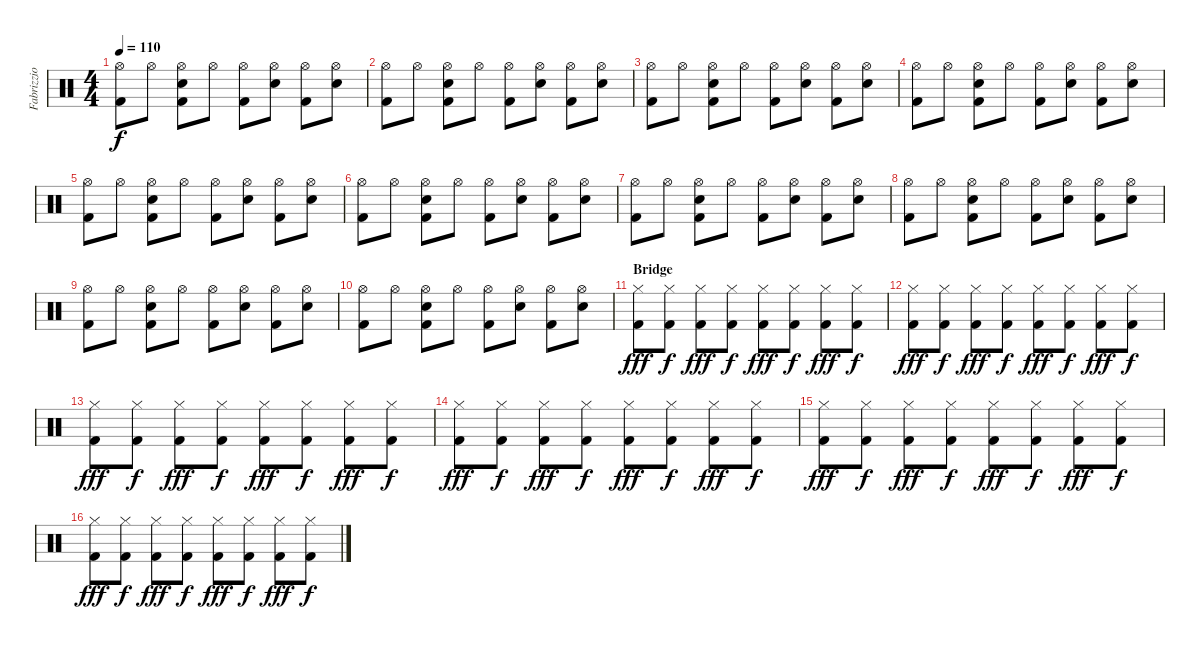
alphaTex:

\track ("Fabrizzio Moretti Drums perfomance" "Fabrizzio ") {instrument percussion}
\staff {score}
\articulation defaults
\ts (4 4)
\tempo 110
\clef neutral
\ks c
("Kick (hit) 2" "Hi-Hat (open)").8{dy f} "Hi-Hat (open)".8 ("Kick (hit) 2" "Electric Snare (hit)" "Hi-Hat (open)").8 "Hi-Hat (open)".8 ("Kick (hit) 2" "Hi-Hat (open)").8 ("Electric Snare (hit)" "Hi-Hat (open)").8 ("Kick (hit) 2" "Hi-Hat (open)").8 ("Electric Snare (hit)" "Hi-Hat (open)").8 |
("Kick (hit) 2" "Hi-Hat (open)").8 "Hi-Hat (open)".8 ("Kick (hit) 2" "Electric Snare (hit)" "Hi-Hat (open)").8 "Hi-Hat (open)".8 ("Kick (hit) 2" "Hi-Hat (open)").8 ("Electric Snare (hit)" "Hi-Hat (open)").8 ("Kick (hit) 2" "Hi-Hat (open)").8 ("Electric Snare (hit)" "Hi-Hat (open)").8 |
("Kick (hit) 2" "Hi-Hat (open)").8 "Hi-Hat (open)".8 ("Kick (hit) 2" "Electric Snare (hit)" "Hi-Hat (open)").8 "Hi-Hat (open)".8 ("Kick (hit) 2" "Hi-Hat (open)").8 ("Electric Snare (hit)" "Hi-Hat (open)").8 ("Kick (hit) 2" "Hi-Hat (open)").8 ("Electric Snare (hit)" "Hi-Hat (open)").8 |
("Kick (hit) 2" "Hi-Hat (open)").8 "Hi-Hat (open)".8 ("Kick (hit) 2" "Electric Snare (hit)" "Hi-Hat (open)").8 "Hi-Hat (open)".8 ("Kick (hit) 2" "Hi-Hat (open)").8 ("Electric Snare (hit)" "Hi-Hat (open)").8 ("Kick (hit) 2" "Hi-Hat (open)").8 ("Electric Snare (hit)" "Hi-Hat (open)").8 |
("Kick (hit) 2" "Hi-Hat (open)").8 "Hi-Hat (open)".8 ("Kick (hit) 2" "Electric Snare (hit)" "Hi-Hat (open)").8 "Hi-Hat (open)".8 ("Kick (hit) 2" "Hi-Hat (open)").8 ("Electric Snare (hit)" "Hi-Hat (open)").8 ("Kick (hit) 2" "Hi-Hat (open)").8 ("Electric Snare (hit)" "Hi-Hat (open)").8 |
("Kick (hit) 2" "Hi-Hat (open)").8 "Hi-Hat (open)".8 ("Kick (hit) 2" "Electric Snare (hit)" "Hi-Hat (open)").8 "Hi-Hat (open)".8 ("Kick (hit) 2" "Hi-Hat (open)").8 ("Electric Snare (hit)" "Hi-Hat (open)").8 ("Kick (hit) 2" "Hi-Hat (open)").8 ("Electric Snare (hit)" "Hi-Hat (open)").8 |
("Kick (hit) 2" "Hi-Hat (open)").8 "Hi-Hat (open)".8 ("Kick (hit) 2" "Electric Snare (hit)" "Hi-Hat (open)").8 "Hi-Hat (open)".8 ("Kick (hit) 2" "Hi-Hat (open)").8 ("Electric Snare (hit)" "Hi-Hat (open)").8 ("Kick (hit) 2" "Hi-Hat (open)").8 ("Electric Snare (hit)" "Hi-Hat (open)").8 |
("Kick (hit) 2" "Hi-Hat (open)").8 "Hi-Hat (open)".8 ("Kick (hit) 2" "Electric Snare (hit)" "Hi-Hat (open)").8 "Hi-Hat (open)".8 ("Kick (hit) 2" "Hi-Hat (open)").8 ("Electric Snare (hit)" "Hi-Hat (open)").8 ("Kick (hit) 2" "Hi-Hat (open)").8 ("Electric Snare (hit)" "Hi-Hat (open)").8 |
("Kick (hit) 2" "Hi-Hat (open)").8 "Hi-Hat (open)".8 ("Kick (hit) 2" "Electric Snare (hit)" "Hi-Hat (open)").8 "Hi-Hat (open)".8 ("Kick (hit) 2" "Hi-Hat (open)").8 ("Electric Snare (hit)" "Hi-Hat (open)").8 ("Kick (hit) 2" "Hi-Hat (open)").8 ("Electric Snare (hit)" "Hi-Hat (open)").8 |
("Kick (hit) 2" "Hi-Hat (open)").8 "Hi-Hat (open)".8 ("Kick (hit) 2" "Electric Snare (hit)" "Hi-Hat (open)").8 "Hi-Hat (open)".8 ("Kick (hit) 2" "Hi-Hat (open)").8 ("Electric Snare (hit)" "Hi-Hat (open)").8 ("Kick (hit) 2" "Hi-Hat (open)").8 ("Electric Snare (hit)" "Hi-Hat (open)").8 |
\section ("" "Bridge")
("Hi-Hat (closed)" "Kick (hit) 2").8{dy fff} ("Hi-Hat (closed)" "Kick (hit) 2").8{dy f} ("Hi-Hat (closed)" "Kick (hit) 2").8{dy fff} ("Hi-Hat (closed)" "Kick (hit) 2").8{dy f} ("Hi-Hat (closed)" "Kick (hit) 2").8{dy fff} ("Hi-Hat (closed)" "Kick (hit) 2").8{dy f} ("Hi-Hat (closed)" "Kick (hit) 2").8{dy fff} ("Hi-Hat (closed)" "Kick (hit) 2").8{dy f} |
("Hi-Hat (closed)" "Kick (hit) 2").8{dy fff} ("Hi-Hat (closed)" "Kick (hit) 2").8{dy f} ("Hi-Hat (closed)" "Kick (hit) 2").8{dy fff} ("Hi-Hat (closed)" "Kick (hit) 2").8{dy f} ("Hi-Hat (closed)" "Kick (hit) 2").8{dy fff} ("Hi-Hat (closed)" "Kick (hit) 2").8{dy f} ("Hi-Hat (closed)" "Kick (hit) 2").8{dy fff} ("Hi-Hat (closed)" "Kick (hit) 2").8{dy f} |
("Hi-Hat (closed)" "Kick (hit) 2").8{dy fff} ("Hi-Hat (closed)" "Kick (hit) 2").8{dy f} ("Hi-Hat (closed)" "Kick (hit) 2").8{dy fff} ("Hi-Hat (closed)" "Kick (hit) 2").8{dy f} ("Hi-Hat (closed)" "Kick (hit) 2").8{dy fff} ("Hi-Hat (closed)" "Kick (hit) 2").8{dy f} ("Hi-Hat (closed)" "Kick (hit) 2").8{dy fff} ("Hi-Hat (closed)" "Kick (hit) 2").8{dy f} |
("Hi-Hat (closed)" "Kick (hit) 2").8{dy fff} ("Hi-Hat (closed)" "Kick (hit) 2").8{dy f} ("Hi-Hat (closed)" "Kick (hit) 2").8{dy fff} ("Hi-Hat (closed)" "Kick (hit) 2").8{dy f} ("Hi-Hat (closed)" "Kick (hit) 2").8{dy fff} ("Hi-Hat (closed)" "Kick (hit) 2").8{dy f} ("Hi-Hat (closed)" "Kick (hit) 2").8{dy fff} ("Hi-Hat (closed)" "Kick (hit) 2").8{dy f} |
("Hi-Hat (closed)" "Kick (hit) 2").8{dy fff} ("Hi-Hat (closed)" "Kick (hit) 2").8{dy f} ("Hi-Hat (closed)" "Kick (hit) 2").8{dy fff} ("Hi-Hat (closed)" "Kick (hit) 2").8{dy f} ("Hi-Hat (closed)" "Kick (hit) 2").8{dy fff} ("Hi-Hat (closed)" "Kick (hit) 2").8{dy f} ("Hi-Hat (closed)" "Kick (hit) 2").8{dy fff} ("Hi-Hat (closed)" "Kick (hit) 2").8{dy f} |
("Hi-Hat (closed)" "Kick (hit) 2").8{dy fff} ("Hi-Hat (closed)" "Kick (hit) 2").8{dy f} ("Hi-Hat (closed)" "Kick (hit) 2").8{dy fff} ("Hi-Hat (closed)" "Kick (hit) 2").8{dy f} ("Hi-Hat (closed)" "Kick (hit) 2").8{dy fff} ("Hi-Hat (closed)" "Kick (hit) 2").8{dy f} ("Hi-Hat (closed)" "Kick (hit) 2").8{dy fff} ("Hi-Hat (closed)" "Kick (hit) 2").8{dy f}
